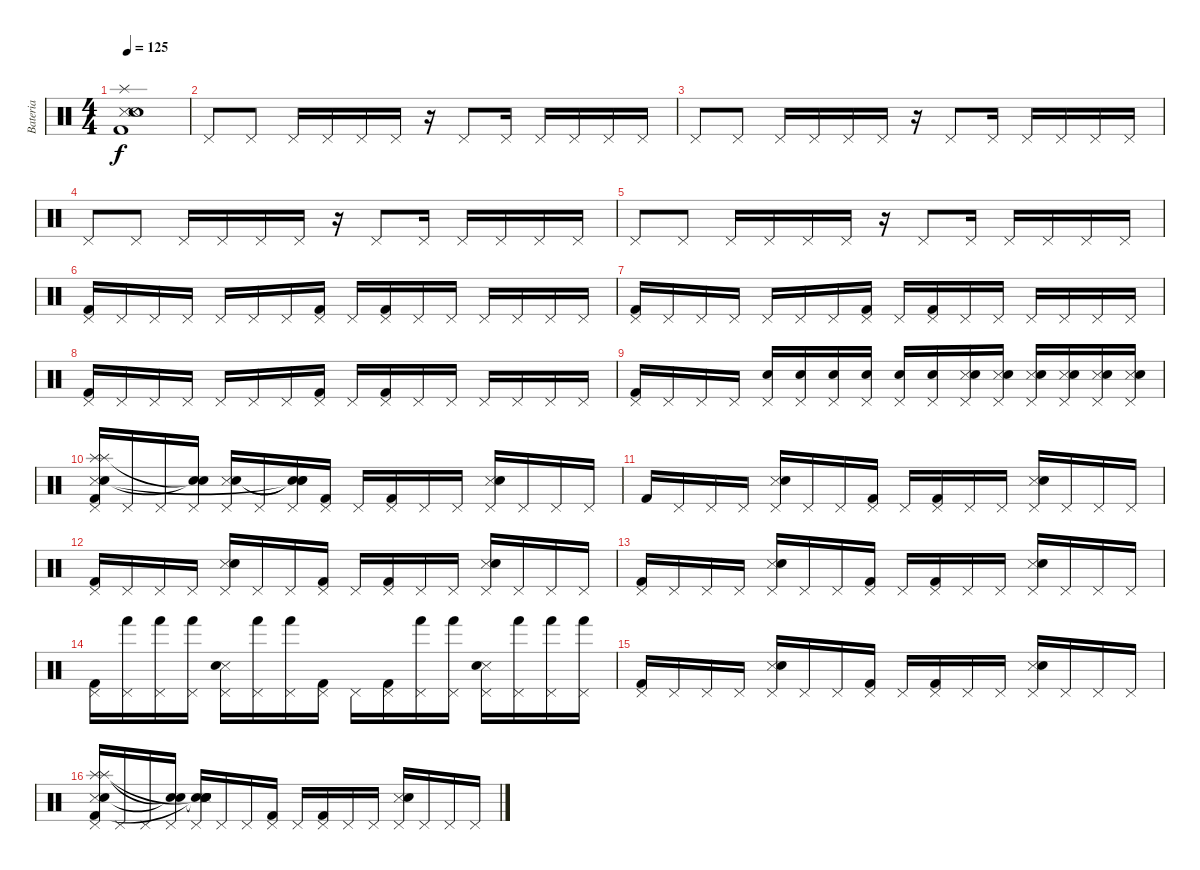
\track ("Bateria" "Bateria") {instrument percussion}
\staff {score}
\articulation defaults
\ts (4 4)
\tempo 125
\clef neutral
\ks c
("Snare (side stick) 3" "Splash (hit)" "Snare (side stick) 3" "Snare (hit) 2" "Snare (side stick) 3" "Kick (hit) 2").1{dy f balance 16} |
"Pedal Hi-Hat (hit)".8{balance 8} "Pedal Hi-Hat (hit)".8 "Pedal Hi-Hat (hit)".16 "Pedal Hi-Hat (hit)".16 "Pedal Hi-Hat (hit)".16 "Pedal Hi-Hat (hit)".16 r.16 "Pedal Hi-Hat (hit)".8 "Pedal Hi-Hat (hit)".16 "Pedal Hi-Hat (hit)".16 "Pedal Hi-Hat (hit)".16 "Pedal Hi-Hat (hit)".16 "Pedal Hi-Hat (hit)".16 |
"Pedal Hi-Hat (hit)".8 "Pedal Hi-Hat (hit)".8 "Pedal Hi-Hat (hit)".16 "Pedal Hi-Hat (hit)".16 "Pedal Hi-Hat (hit)".16 "Pedal Hi-Hat (hit)".16 r.16 "Pedal Hi-Hat (hit)".8 "Pedal Hi-Hat (hit)".16 "Pedal Hi-Hat (hit)".16 "Pedal Hi-Hat (hit)".16 "Pedal Hi-Hat (hit)".16 "Pedal Hi-Hat (hit)".16 |
"Pedal Hi-Hat (hit)".8 "Pedal Hi-Hat (hit)".8 "Pedal Hi-Hat (hit)".16 "Pedal Hi-Hat (hit)".16 "Pedal Hi-Hat (hit)".16 "Pedal Hi-Hat (hit)".16 r.16 "Pedal Hi-Hat (hit)".8 "Pedal Hi-Hat (hit)".16 "Pedal Hi-Hat (hit)".16 "Pedal Hi-Hat (hit)".16 "Pedal Hi-Hat (hit)".16 "Pedal Hi-Hat (hit)".16 |
"Pedal Hi-Hat (hit)".8 "Pedal Hi-Hat (hit)".8 "Pedal Hi-Hat (hit)".16 "Pedal Hi-Hat (hit)".16 "Pedal Hi-Hat (hit)".16 "Pedal Hi-Hat (hit)".16 r.16 "Pedal Hi-Hat (hit)".8 "Pedal Hi-Hat (hit)".16 "Pedal Hi-Hat (hit)".16 "Pedal Hi-Hat (hit)".16 "Pedal Hi-Hat (hit)".16 "Pedal Hi-Hat (hit)".16 |
("Pedal Hi-Hat (hit)" "Kick (hit) 2").16 "Pedal Hi-Hat (hit)".16 "Pedal Hi-Hat (hit)".16 "Pedal Hi-Hat (hit)".16 "Pedal Hi-Hat (hit)".16 "Pedal Hi-Hat (hit)".16 "Pedal Hi-Hat (hit)".16 ("Pedal Hi-Hat (hit)" "Kick (hit) 2").16 "Pedal Hi-Hat (hit)".16 ("Pedal Hi-Hat (hit)" "Kick (hit) 2").16 "Pedal Hi-Hat (hit)".16 "Pedal Hi-Hat (hit)".16 "Pedal Hi-Hat (hit)".16 "Pedal Hi-Hat (hit)".16 "Pedal Hi-Hat (hit)".16 "Pedal Hi-Hat (hit)".16 |
("Pedal Hi-Hat (hit)" "Kick (hit) 2").16 "Pedal Hi-Hat (hit)".16 "Pedal Hi-Hat (hit)".16 "Pedal Hi-Hat (hit)".16 "Pedal Hi-Hat (hit)".16 "Pedal Hi-Hat (hit)".16 "Pedal Hi-Hat (hit)".16 ("Pedal Hi-Hat (hit)" "Kick (hit) 2").16 "Pedal Hi-Hat (hit)".16 ("Pedal Hi-Hat (hit)" "Kick (hit) 2").16 "Pedal Hi-Hat (hit)".16 "Pedal Hi-Hat (hit)".16 "Pedal Hi-Hat (hit)".16 "Pedal Hi-Hat (hit)".16 "Pedal Hi-Hat (hit)".16 "Pedal Hi-Hat (hit)".16 |
("Pedal Hi-Hat (hit)" "Kick (hit) 2").16 "Pedal Hi-Hat (hit)".16 "Pedal Hi-Hat (hit)".16 "Pedal Hi-Hat (hit)".16 "Pedal Hi-Hat (hit)".16 "Pedal Hi-Hat (hit)".16 "Pedal Hi-Hat (hit)".16 ("Pedal Hi-Hat (hit)" "Kick (hit) 2").16 "Pedal Hi-Hat (hit)".16 ("Pedal Hi-Hat (hit)" "Kick (hit) 2").16 "Pedal Hi-Hat (hit)".16 "Pedal Hi-Hat (hit)".16 "Pedal Hi-Hat (hit)".16 "Pedal Hi-Hat (hit)".16 "Pedal Hi-Hat (hit)".16 "Pedal Hi-Hat (hit)".16 |
("Pedal Hi-Hat (hit)" "Kick (hit) 2").16 "Pedal Hi-Hat (hit)".16 "Pedal Hi-Hat (hit)".16 "Pedal Hi-Hat (hit)".16 ("Pedal Hi-Hat (hit)" "Snare (hit) 2").16 ("Pedal Hi-Hat (hit)" "Snare (hit) 2").16 ("Pedal Hi-Hat (hit)" "Snare (hit) 2").16 ("Pedal Hi-Hat (hit)" "Snare (hit) 2").16 ("Pedal Hi-Hat (hit)" "Snare (hit) 2").16 ("Pedal Hi-Hat (hit)" "Snare (hit) 2").16 ("Pedal Hi-Hat (hit)" "Snare (side stick) 3" "Snare (hit) 2").16 ("Pedal Hi-Hat (hit)" "Snare (side stick) 3" "Snare (hit) 2").16 ("Pedal Hi-Hat (hit)" "Snare (side stick) 3" "Snare (hit) 2").16 ("Pedal Hi-Hat (hit)" "Snare (side stick) 3" "Snare (hit) 2").16 ("Pedal Hi-Hat (hit)" "Snare (side stick) 3" "Snare (hit) 2").16 ("Pedal Hi-Hat (hit)" "Snare (side stick) 3" "Snare (hit) 2").16 |
("Pedal Hi-Hat (hit)" "Splash (hit)" "Snare (side stick) 3" "Snare (hit) 2" "Splash (hit)" "Kick (hit) 2").16 "Pedal Hi-Hat (hit)".16 "Pedal Hi-Hat (hit)".16 ("Pedal Hi-Hat (hit)" "Snare (hit)"{t} "Snare (hit)"{t}).16 ("Pedal Hi-Hat (hit)" "Snare (side stick) 3" "Snare (hit) 2").16 "Pedal Hi-Hat (hit)".16 ("Pedal Hi-Hat (hit)" "Snare (hit)"{t} "Snare (hit)"{t} "Snare (hit)"{t}).16 ("Pedal Hi-Hat (hit)" "Kick (hit) 2").16 "Pedal Hi-Hat (hit)".16 ("Pedal Hi-Hat (hit)" "Kick (hit) 2").16 "Pedal Hi-Hat (hit)".16 "Pedal Hi-Hat (hit)".16 ("Pedal Hi-Hat (hit)" "Snare (side stick) 3" "Snare (hit) 2").16 "Pedal Hi-Hat (hit)".16 "Pedal Hi-Hat (hit)".16 "Pedal Hi-Hat (hit)".16 |
"Kick (hit) 2".16 "Pedal Hi-Hat (hit)".16 "Pedal Hi-Hat (hit)".16 "Pedal Hi-Hat (hit)".16 ("Pedal Hi-Hat (hit)" "Snare (side stick) 3" "Snare (hit) 2").16 "Pedal Hi-Hat (hit)".16 "Pedal Hi-Hat (hit)".16 ("Pedal Hi-Hat (hit)" "Kick (hit) 2").16 "Pedal Hi-Hat (hit)".16 ("Pedal Hi-Hat (hit)" "Kick (hit) 2").16 "Pedal Hi-Hat (hit)".16 "Pedal Hi-Hat (hit)".16 ("Pedal Hi-Hat (hit)" "Snare (side stick) 3" "Snare (hit) 2").16 "Pedal Hi-Hat (hit)".16 "Pedal Hi-Hat (hit)".16 "Pedal Hi-Hat (hit)".16 |
("Pedal Hi-Hat (hit)" "Kick (hit) 2").16 "Pedal Hi-Hat (hit)".16 "Pedal Hi-Hat (hit)".16 "Pedal Hi-Hat (hit)".16 ("Pedal Hi-Hat (hit)" "Snare (side stick) 3" "Snare (hit) 2").16 "Pedal Hi-Hat (hit)".16 "Pedal Hi-Hat (hit)".16 ("Pedal Hi-Hat (hit)" "Kick (hit) 2").16 "Pedal Hi-Hat (hit)".16 ("Pedal Hi-Hat (hit)" "Kick (hit) 2").16 "Pedal Hi-Hat (hit)".16 "Pedal Hi-Hat (hit)".16 ("Pedal Hi-Hat (hit)" "Snare (side stick) 3" "Snare (hit) 2").16 "Pedal Hi-Hat (hit)".16 "Pedal Hi-Hat (hit)".16 "Pedal Hi-Hat (hit)".16 |
("Pedal Hi-Hat (hit)" "Kick (hit) 2").16 "Pedal Hi-Hat (hit)".16 "Pedal Hi-Hat (hit)".16 "Pedal Hi-Hat (hit)".16 ("Pedal Hi-Hat (hit)" "Snare (side stick) 3" "Snare (hit) 2").16 "Pedal Hi-Hat (hit)".16 "Pedal Hi-Hat (hit)".16 ("Pedal Hi-Hat (hit)" "Kick (hit) 2").16 "Pedal Hi-Hat (hit)".16 ("Pedal Hi-Hat (hit)" "Kick (hit) 2").16 "Pedal Hi-Hat (hit)".16 "Pedal Hi-Hat (hit)".16 ("Pedal Hi-Hat (hit)" "Snare (side stick) 3" "Snare (hit) 2").16 "Pedal Hi-Hat (hit)".16 "Pedal Hi-Hat (hit)".16 "Pedal Hi-Hat (hit)".16 |
("Pedal Hi-Hat (hit)" "Kick (hit) 2").16 ("Pedal Hi-Hat (hit)" "Hand (hit)").16 ("Pedal Hi-Hat (hit)" "Hand (hit)").16 ("Pedal Hi-Hat (hit)" "Hand (hit)").16 ("Pedal Hi-Hat (hit)" "Snare (side stick) 3" "Snare (hit) 2").16 ("Pedal Hi-Hat (hit)" "Hand (hit)").16 ("Pedal Hi-Hat (hit)" "Hand (hit)").16 ("Pedal Hi-Hat (hit)" "Kick (hit) 2").16 "Pedal Hi-Hat (hit)".16 ("Pedal Hi-Hat (hit)" "Kick (hit) 2").16 ("Pedal Hi-Hat (hit)" "Hand (hit)").16 ("Pedal Hi-Hat (hit)" "Hand (hit)").16 ("Pedal Hi-Hat (hit)" "Snare (side stick) 3" "Snare (hit) 2").16 ("Pedal Hi-Hat (hit)" "Hand (hit)").16 ("Pedal Hi-Hat (hit)" "Hand (hit)").16 ("Pedal Hi-Hat (hit)" "Hand (hit)").16 |
("Pedal Hi-Hat (hit)" "Kick (hit) 2").16 "Pedal Hi-Hat (hit)".16 "Pedal Hi-Hat (hit)".16 "Pedal Hi-Hat (hit)".16 ("Pedal Hi-Hat (hit)" "Snare (side stick) 3" "Snare (hit) 2").16 "Pedal Hi-Hat (hit)".16 "Pedal Hi-Hat (hit)".16 ("Pedal Hi-Hat (hit)" "Kick (hit) 2").16 "Pedal Hi-Hat (hit)".16 ("Pedal Hi-Hat (hit)" "Kick (hit) 2").16 "Pedal Hi-Hat (hit)".16 "Pedal Hi-Hat (hit)".16 ("Pedal Hi-Hat (hit)" "Snare (side stick) 3" "Snare (hit) 2").16 "Pedal Hi-Hat (hit)".16 "Pedal Hi-Hat (hit)".16 "Pedal Hi-Hat (hit)".16 |
("Pedal Hi-Hat (hit)" "Splash (hit)" "Snare (side stick) 3" "Snare (hit) 2" "Splash (hit)" "Kick (hit) 2").16 "Pedal Hi-Hat (hit)".16 "Pedal Hi-Hat (hit)".16 ("Pedal Hi-Hat (hit)" "Snare (hit)"{t} "Snare (hit)"{t}).16 ("Pedal Hi-Hat (hit)" "Snare (hit)"{t} "Snare (side stick) 3" "Snare (hit) 2" "Snare (hit)"{t} "Snare (hit)"{t}).16 "Pedal Hi-Hat (hit)".16 "Pedal Hi-Hat (hit)".16 ("Pedal Hi-Hat (hit)" "Kick (hit) 2").16 "Pedal Hi-Hat (hit)".16 ("Pedal Hi-Hat (hit)" "Kick (hit) 2").16 "Pedal Hi-Hat (hit)".16 "Pedal Hi-Hat (hit)".16 ("Pedal Hi-Hat (hit)" "Snare (side stick) 3" "Snare (hit) 2").16 "Pedal Hi-Hat (hit)".16 "Pedal Hi-Hat (hit)".16 "Pedal Hi-Hat (hit)".16
